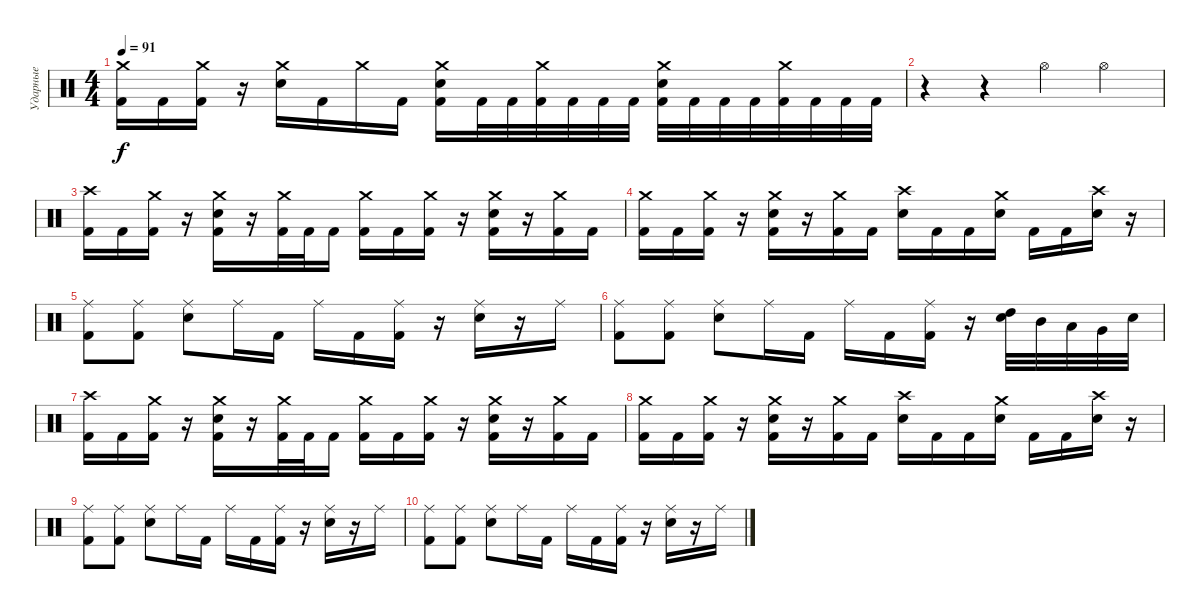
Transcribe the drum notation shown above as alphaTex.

\track ("Ударные" "Ударные") {instrument percussion}
\staff {score}
\articulation defaults
\ts (4 4)
\tempo 91
\clef neutral
\ks c
("Crash medium (hit)" "Kick (hit) 2").16{dy f} "Kick (hit) 2".16 ("Crash medium (hit)" "Kick (hit) 2").16 r.16 ("Crash medium (hit)" "Electric Snare (hit)").16 "Kick (hit) 2".16 "Crash medium (hit)".16 "Kick (hit) 2".16 ("Crash medium (hit)" "Kick (hit) 2" "Electric Snare (hit)").16 "Kick (hit) 2".32 "Kick (hit) 2".32 ("Crash medium (hit)" "Kick (hit) 2").32 "Kick (hit) 2".32 "Kick (hit) 2".32 "Kick (hit) 2".32 ("Crash medium (hit)" "Kick (hit) 2" "Electric Snare (hit)").32 "Kick (hit) 2".32 "Kick (hit) 2".32 "Kick (hit) 2".32 ("Crash medium (hit)" "Kick (hit) 2").32 "Kick (hit) 2".32 "Kick (hit) 2".32 "Kick (hit) 2".32 |
r.4 r.4 "Hi-Hat (open)".4 "Hi-Hat (open)".4 |
("Crash high (hit)" "Kick (hit) 2").16 "Kick (hit) 2".16 ("Crash medium (hit)" "Kick (hit) 2").16 r.16 ("Crash medium (hit)" "Electric Snare (hit)" "Kick (hit) 2").16 r.16 ("Crash medium (hit)" "Kick (hit) 2").32 "Kick (hit) 2".32 "Kick (hit) 2".16 ("Crash medium (hit)" "Kick (hit) 2").16 "Kick (hit) 2".16 ("Crash medium (hit)" "Kick (hit) 2").16 r.16 ("Crash medium (hit)" "Electric Snare (hit)" "Kick (hit) 2").16 r.16 ("Crash medium (hit)" "Kick (hit) 2").16 "Kick (hit) 2".16 |
("Crash medium (hit)" "Kick (hit) 2").16 "Kick (hit) 2".16 ("Crash medium (hit)" "Kick (hit) 2").16 r.16 ("Crash medium (hit)" "Electric Snare (hit)" "Kick (hit) 2").16 r.16 ("Crash medium (hit)" "Kick (hit) 2").16 "Kick (hit) 2".16 ("Crash high (hit)" "Electric Snare (hit)").16 "Kick (hit) 2".16 "Kick (hit) 2".16 ("Crash medium (hit)" "Electric Snare (hit)").16 "Kick (hit) 2".16 "Kick (hit) 2".16 ("Crash high (hit)" "Electric Snare (hit)").16 r.16 |
("Ride (middle)" "Kick (hit) 2").8 ("Ride (middle)" "Kick (hit) 2").8 ("Ride (middle)" "Electric Snare (hit)").8 "Ride (middle)".16 "Kick (hit) 2".16 "Ride (middle)".16 "Kick (hit) 2".16 ("Ride (middle)" "Kick (hit) 2").16 r.16 ("Ride (middle)" "Electric Snare (hit)").16 r.16 "Ride (middle)".16 |
("Ride (middle)" "Kick (hit) 2").8 ("Ride (middle)" "Kick (hit) 2").8 ("Ride (middle)" "Electric Snare (hit)").8 "Ride (middle)".16 "Kick (hit) 2".16 "Ride (middle)".16 "Kick (hit) 2".16 ("Ride (middle)" "Kick (hit) 2").16 r.16 ("High Tom (hit)" "Electric Snare (hit)").32 "Mid Tom (hit)".32 "Low Tom (hit)".32 "Very Low Tom (hit)".32 "Electric Snare (hit)".32 |
("Crash high (hit)" "Kick (hit) 2").16 "Kick (hit) 2".16 ("Crash medium (hit)" "Kick (hit) 2").16 r.16 ("Crash medium (hit)" "Electric Snare (hit)" "Kick (hit) 2").16 r.16 ("Crash medium (hit)" "Kick (hit) 2").32 "Kick (hit) 2".32 "Kick (hit) 2".16 ("Crash medium (hit)" "Kick (hit) 2").16 "Kick (hit) 2".16 ("Crash medium (hit)" "Kick (hit) 2").16 r.16 ("Crash medium (hit)" "Electric Snare (hit)" "Kick (hit) 2").16 r.16 ("Crash medium (hit)" "Kick (hit) 2").16 "Kick (hit) 2".16 |
("Crash medium (hit)" "Kick (hit) 2").16 "Kick (hit) 2".16 ("Crash medium (hit)" "Kick (hit) 2").16 r.16 ("Crash medium (hit)" "Electric Snare (hit)" "Kick (hit) 2").16 r.16 ("Crash medium (hit)" "Kick (hit) 2").16 "Kick (hit) 2".16 ("Crash high (hit)" "Electric Snare (hit)").16 "Kick (hit) 2".16 "Kick (hit) 2".16 ("Crash medium (hit)" "Electric Snare (hit)").16 "Kick (hit) 2".16 "Kick (hit) 2".16 ("Crash high (hit)" "Electric Snare (hit)").16 r.16 |
("Ride (middle)" "Kick (hit) 2").8 ("Ride (middle)" "Kick (hit) 2").8 ("Ride (middle)" "Electric Snare (hit)").8 "Ride (middle)".16 "Kick (hit) 2".16 "Ride (middle)".16 "Kick (hit) 2".16 ("Ride (middle)" "Kick (hit) 2").16 r.16 ("Ride (middle)" "Electric Snare (hit)").16 r.16 "Ride (middle)".16 |
("Ride (middle)" "Kick (hit) 2").8 ("Ride (middle)" "Kick (hit) 2").8 ("Ride (middle)" "Electric Snare (hit)").8 "Ride (middle)".16 "Kick (hit) 2".16 "Ride (middle)".16 "Kick (hit) 2".16 ("Ride (middle)" "Kick (hit) 2").16 r.16 ("Ride (middle)" "Electric Snare (hit)").16 r.16 "Ride (middle)".16
